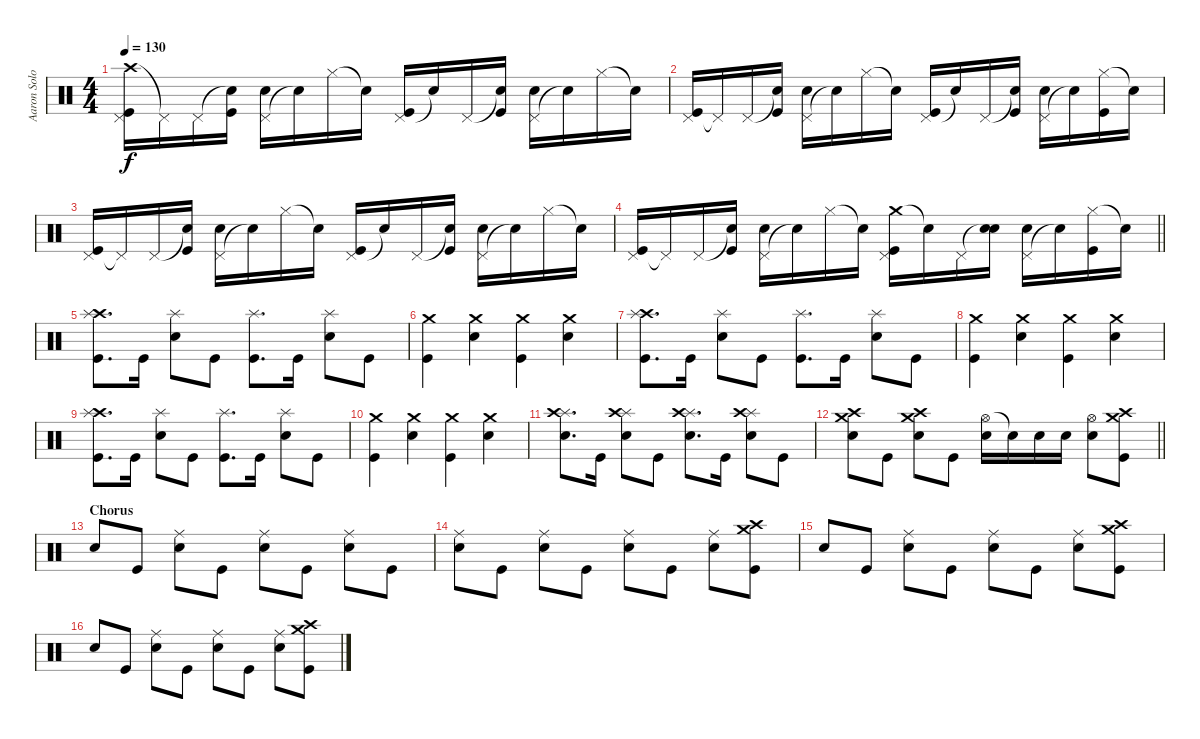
\track ("Aaron Solowoniuk" "Aaron Solo") {instrument percussion}
\staff {score}
\articulation defaults
\ts (4 4)
\tempo 130
\clef neutral
\ks c
("Crash high (hit)" "Pedal Hi-Hat (hit)" "Kick (hit)").16{dy f} "Pedal Hi-Hat (hit)"{t}.16 "Pedal Hi-Hat (hit)".16 ("Snare (hit)"{t} "Kick (hit)").16 ("Pedal Hi-Hat (hit)" "Electric Snare (hit)").16 "Snare (hit)"{t}.16 "Hi-Hat (closed)".16 "Snare (hit)"{t}.16 ("Pedal Hi-Hat (hit)" "Kick (hit)").16 "Snare (hit)"{t}.16 "Pedal Hi-Hat (hit)".16 ("Snare (hit)"{t} "Kick (hit)").16 ("Pedal Hi-Hat (hit)" "Electric Snare (hit)").16 "Snare (hit)"{t}.16 "Hi-Hat (closed)".16 "Snare (hit)"{t}.16 |
("Pedal Hi-Hat (hit)" "Kick (hit)").16 "Pedal Hi-Hat (hit)"{t}.16 "Pedal Hi-Hat (hit)".16 ("Snare (hit)"{t} "Kick (hit)").16 ("Pedal Hi-Hat (hit)" "Electric Snare (hit)").16 "Snare (hit)"{t}.16 "Hi-Hat (closed)".16 "Snare (hit)"{t}.16 ("Pedal Hi-Hat (hit)" "Kick (hit)").16 "Snare (hit)"{t}.16 "Pedal Hi-Hat (hit)".16 ("Snare (hit)"{t} "Kick (hit)").16 ("Pedal Hi-Hat (hit)" "Electric Snare (hit)").16 "Snare (hit)"{t}.16 ("Hi-Hat (closed)" "Kick (hit)").16 "Snare (hit)"{t}.16 |
("Pedal Hi-Hat (hit)" "Kick (hit)").16 "Pedal Hi-Hat (hit)"{t}.16 "Pedal Hi-Hat (hit)".16 ("Snare (hit)"{t} "Kick (hit)").16 ("Pedal Hi-Hat (hit)" "Electric Snare (hit)").16 "Snare (hit)"{t}.16 "Hi-Hat (closed)".16 "Snare (hit)"{t}.16 ("Pedal Hi-Hat (hit)" "Kick (hit)").16 "Snare (hit)"{t}.16 "Pedal Hi-Hat (hit)".16 ("Snare (hit)"{t} "Kick (hit)").16 ("Pedal Hi-Hat (hit)" "Electric Snare (hit)").16 "Snare (hit)"{t}.16 "Hi-Hat (closed)".16 "Snare (hit)"{t}.16 |
\barLineRight lightlight
("Pedal Hi-Hat (hit)" "Kick (hit)").16 "Pedal Hi-Hat (hit)"{t}.16 "Pedal Hi-Hat (hit)".16 ("Snare (hit)"{t} "Kick (hit)").16 ("Pedal Hi-Hat (hit)" "Electric Snare (hit)").16 "Snare (hit)"{t}.16 "Hi-Hat (closed)".16 "Snare (hit)"{t}.16 ("Crash medium (hit)" "Pedal Hi-Hat (hit)" "Kick (hit)").16 "Snare (hit)"{t}.16 "Pedal Hi-Hat (hit)".16 ("Snare (hit)"{t} "Electric Snare (hit)").16 ("Pedal Hi-Hat (hit)" "Electric Snare (hit)").16 "Snare (hit)"{t}.16 ("Hi-Hat (closed)" "Kick (hit)").16 "Snare (hit)"{t}.16 |
\section ("" "")
("Crash high (hit)" "Splash (hit)" "Kick (hit)").8{d} "Kick (hit)".16 ("Splash (hit)" "Electric Snare (hit)").8 "Kick (hit)".8 ("Splash (hit)" "Kick (hit)").8{d} "Kick (hit)".16 ("Splash (hit)" "Electric Snare (hit)").8 "Kick (hit)".8 |
("Crash medium (hit)" "Kick (hit)").4 ("Crash medium (hit)" "Electric Snare (hit)").4 ("Crash medium (hit)" "Kick (hit)").4 ("Crash medium (hit)" "Electric Snare (hit)").4 |
("Crash high (hit)" "Splash (hit)" "Kick (hit)").8{d} "Kick (hit)".16 ("Splash (hit)" "Electric Snare (hit)").8 "Kick (hit)".8 ("Splash (hit)" "Kick (hit)").8{d} "Kick (hit)".16 ("Splash (hit)" "Electric Snare (hit)").8 "Kick (hit)".8 |
("Crash medium (hit)" "Kick (hit)").4 ("Crash medium (hit)" "Electric Snare (hit)").4 ("Crash medium (hit)" "Kick (hit)").4 ("Crash medium (hit)" "Electric Snare (hit)").4 |
("Crash high (hit)" "Splash (hit)" "Kick (hit)").8{d} "Kick (hit)".16 ("Splash (hit)" "Electric Snare (hit)").8 "Kick (hit)".8 ("Splash (hit)" "Kick (hit)").8{d} "Kick (hit)".16 ("Splash (hit)" "Electric Snare (hit)").8 "Kick (hit)".8 |
("Crash medium (hit)" "Kick (hit)").4 ("Crash medium (hit)" "Electric Snare (hit)").4 ("Crash medium (hit)" "Kick (hit)").4 ("Crash medium (hit)" "Electric Snare (hit)").4 |
("Splash (hit)" "Crash high (hit)" "Electric Snare (hit)").8{d} "Kick (hit)".16 ("Splash (hit)" "Crash high (hit)" "Electric Snare (hit)").8 "Kick (hit)".8 ("Splash (hit)" "Crash high (hit)" "Electric Snare (hit)").8{d} "Kick (hit)".16 ("Splash (hit)" "Crash high (hit)" "Electric Snare (hit)").8 "Kick (hit)".8 |
\barLineRight lightlight
("Crash medium (hit)" "Crash high (hit)" "Electric Snare (hit)").8 "Kick (hit)".8 ("Crash medium (hit)" "Crash high (hit)" "Electric Snare (hit)").8 "Kick (hit)".8 ("Hi-Hat (open)" "Electric Snare (hit)").16 "Electric Snare (hit)"{t}.16 "Electric Snare (hit)".16 "Electric Snare (hit)".16 ("Hi-Hat (open)" "Electric Snare (hit)").8 ("Crash medium (hit)" "Crash high (hit)" "Kick (hit)").8 |
\section ("" "Chorus")
"Electric Snare (hit)".8 "Kick (hit)".8 ("Ride (middle)" "Electric Snare (hit)").8 "Kick (hit)".8 ("Ride (middle)" "Electric Snare (hit)").8 "Kick (hit)".8 ("Ride (middle)" "Electric Snare (hit)").8 "Kick (hit)".8 |
("Ride (middle)" "Electric Snare (hit)").8 "Kick (hit)".8 ("Ride (middle)" "Electric Snare (hit)").8 "Kick (hit)".8 ("Ride (middle)" "Electric Snare (hit)").8 "Kick (hit)".8 ("Ride (middle)" "Electric Snare (hit)").8 ("Crash medium (hit)" "Crash high (hit)" "Kick (hit)").8 |
"Electric Snare (hit)".8 "Kick (hit)".8 ("Ride (middle)" "Electric Snare (hit)").8 "Kick (hit)".8 ("Ride (middle)" "Electric Snare (hit)").8 "Kick (hit)".8 ("Ride (middle)" "Electric Snare (hit)").8 ("Crash medium (hit)" "Crash high (hit)" "Kick (hit)").8 |
"Electric Snare (hit)".8 "Kick (hit)".8 ("Ride (middle)" "Electric Snare (hit)").8 "Kick (hit)".8 ("Ride (middle)" "Electric Snare (hit)").8 "Kick (hit)".8 ("Ride (middle)" "Electric Snare (hit)").8 ("Crash medium (hit)" "Crash high (hit)" "Kick (hit)").8
